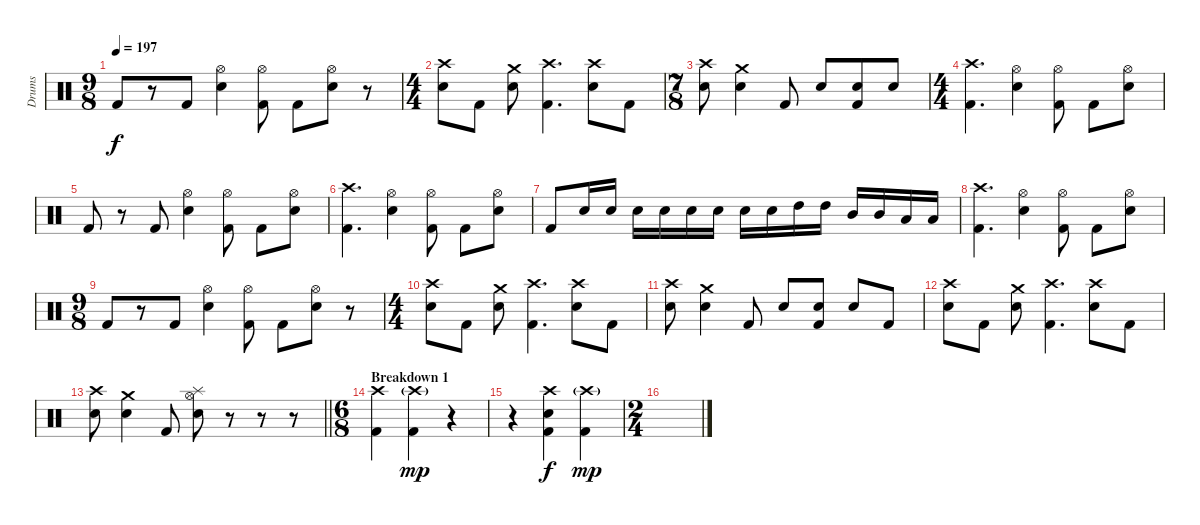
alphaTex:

\track ("Drums" "Drums") {instrument percussion}
\staff {score}
\articulation defaults
\ts (9 8)
\tempo 197
\clef neutral
\ks c "Kick (hit) 2".8{dy f}
r.8 "Kick (hit) 2".8 ("Hi-Hat (open)" "Electric Snare (hit)").4 ("Hi-Hat (open)" "Kick (hit) 2").8 "Kick (hit) 2".8 ("Hi-Hat (open)" "Electric Snare (hit)").8 r.8 |
\ts (4 4)
("Crash high (hit)" "Electric Snare (hit)").8 "Kick (hit) 2".8 ("Crash medium (hit)" "Electric Snare (hit)").8 ("Crash high (hit)" "Kick (hit) 2").4{d} ("Crash high (hit)" "Electric Snare (hit)").8 "Kick (hit) 2".8 |
\ts (7 8)
("Crash high (hit)" "Electric Snare (hit)").8 ("Crash medium (hit)" "Electric Snare (hit)").4 "Kick (hit) 2".8 "Electric Snare (hit)".8 ("Electric Snare (hit)" "Kick (hit) 2").8 "Electric Snare (hit)".8 |
\ts (4 4)
("Crash high (hit)" "Kick (hit) 2").4{d} ("Hi-Hat (open)" "Electric Snare (hit)").4 ("Hi-Hat (open)" "Kick (hit) 2").8 "Kick (hit) 2".8 ("Hi-Hat (open)" "Electric Snare (hit)").8 |
"Kick (hit) 2".8 r.8 "Kick (hit) 2".8 ("Hi-Hat (open)" "Electric Snare (hit)").4 ("Hi-Hat (open)" "Kick (hit) 2").8 "Kick (hit) 2".8 ("Hi-Hat (open)" "Electric Snare (hit)").8 |
("Crash high (hit)" "Kick (hit) 2").4{d} ("Hi-Hat (open)" "Electric Snare (hit)").4 ("Hi-Hat (open)" "Kick (hit) 2").8 "Kick (hit) 2".8 ("Hi-Hat (open)" "Electric Snare (hit)").8 |
"Kick (hit) 2".8 "Electric Snare (hit)".16 "Electric Snare (hit)".16 "Electric Snare (hit)".16 "Electric Snare (hit)".16 "Electric Snare (hit)".16 "Electric Snare (hit)".16 "Electric Snare (hit)".16 "Electric Snare (hit)".16 "High Tom (hit)".16 "High Tom (hit)".16 "Mid Tom (hit)".16 "Mid Tom (hit)".16 "Low Tom (hit)".16 "Low Tom (hit)".16 |
("Crash high (hit)" "Kick (hit) 2").4{d} ("Hi-Hat (open)" "Electric Snare (hit)").4 ("Hi-Hat (open)" "Kick (hit) 2").8 "Kick (hit) 2".8 ("Hi-Hat (open)" "Electric Snare (hit)").8 |
\ts (9 8)
"Kick (hit) 2".8 r.8 "Kick (hit) 2".8 ("Hi-Hat (open)" "Electric Snare (hit)").4 ("Hi-Hat (open)" "Kick (hit) 2").8 "Kick (hit) 2".8 ("Hi-Hat (open)" "Electric Snare (hit)").8 r.8 |
\ts (4 4)
("Crash high (hit)" "Electric Snare (hit)").8 "Kick (hit) 2".8 ("Crash medium (hit)" "Electric Snare (hit)").8 ("Crash high (hit)" "Kick (hit) 2").4{d} ("Crash high (hit)" "Electric Snare (hit)").8 "Kick (hit) 2".8 |
("Crash high (hit)" "Electric Snare (hit)").8 ("Crash medium (hit)" "Electric Snare (hit)").4 "Kick (hit) 2".8 "Electric Snare (hit)".8 ("Electric Snare (hit)" "Kick (hit) 2").8 "Electric Snare (hit)".8 "Kick (hit) 2".8 |
("Crash high (hit)" "Electric Snare (hit)").8 "Kick (hit) 2".8 ("Crash medium (hit)" "Electric Snare (hit)").8 ("Crash high (hit)" "Kick (hit) 2").4{d} ("Crash high (hit)" "Electric Snare (hit)").8 "Kick (hit) 2".8 |
\barLineRight lightlight
("Crash high (hit)" "Electric Snare (hit)").8 ("Crash medium (hit)" "Electric Snare (hit)").4 "Kick (hit) 2".8 ("Hi-Hat (open)" "Splash (hit)" "Electric Snare (hit)").8 r.8 r.8 r.8 |
\ts (6 8)
\section ("" "Breakdown 1")
("Crash high (hit)" "Kick (hit) 2").4 ("Crash high (hit)"{g} "Kick (hit) 2").4{dy mp} r.4 |
r.4 ("Crash high (hit)" "Electric Snare (hit)" "Kick (hit) 2").4{dy f} ("Crash high (hit)"{g} "Kick (hit) 2").4{dy mp} |
\ts (2 4)
